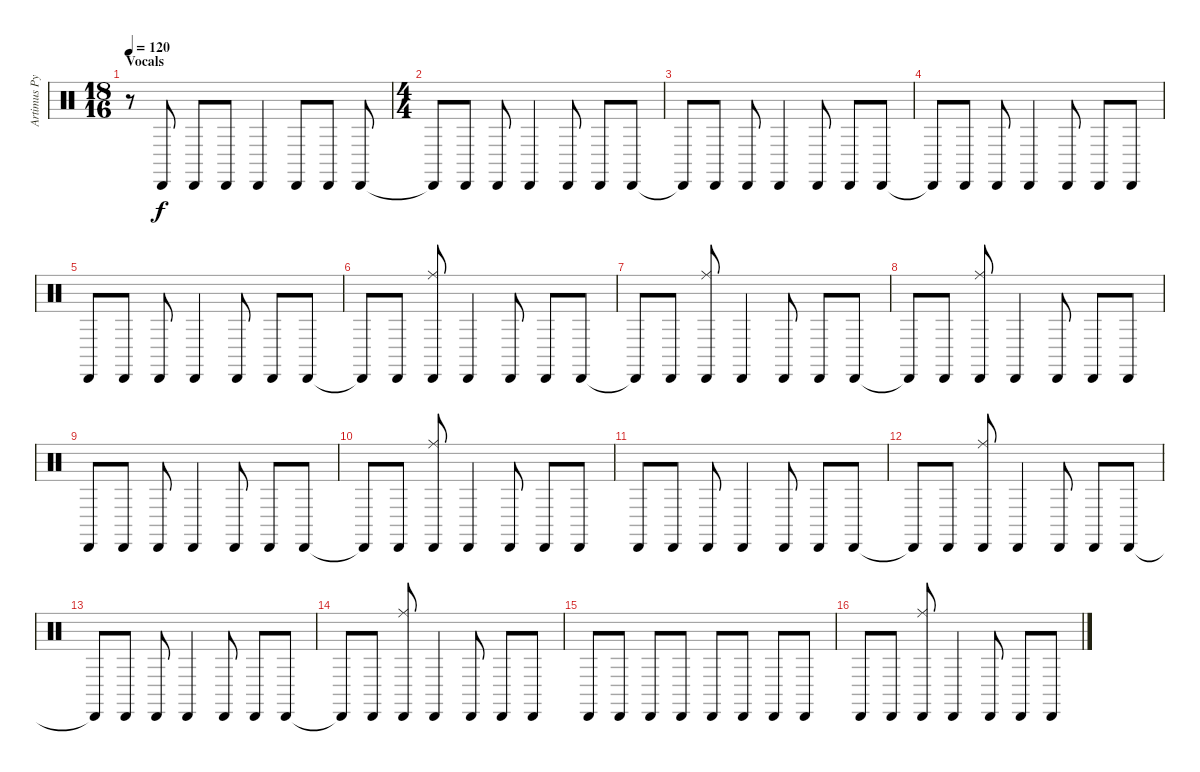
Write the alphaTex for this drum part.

\track ("Artimus Pyle" "Artimus Py") {instrument percussion}
\staff {score}
\articulation defaults
\ts (18 16)
\section ("" "Vocals")
\tempo 120
\clef neutral
\ks c
r.8{dy f} "Cabasa (hit)".8 "Cabasa (hit)".8 "Cabasa (hit)".8 "Cabasa (hit)".4 "Cabasa (hit)".8 "Cabasa (hit)".8 "Cabasa (hit)".8 |
\ts (4 4)
"Cabasa (hit)"{t}.8 "Cabasa (hit)".8 "Cabasa (hit)".8 "Cabasa (hit)".4 "Cabasa (hit)".8 "Cabasa (hit)".8 "Cabasa (hit)".8 |
"Cabasa (hit)"{t}.8 "Cabasa (hit)".8 "Cabasa (hit)".8 "Cabasa (hit)".4 "Cabasa (hit)".8 "Cabasa (hit)".8 "Cabasa (hit)".8 |
"Cabasa (hit)"{t}.8 "Cabasa (hit)".8 "Cabasa (hit)".8 "Cabasa (hit)".4 "Cabasa (hit)".8 "Cabasa (hit)".8 "Cabasa (hit)".8 |
"Cabasa (hit)".8 "Cabasa (hit)".8 "Cabasa (hit)".8 "Cabasa (hit)".4 "Cabasa (hit)".8 "Cabasa (hit)".8 "Cabasa (hit)".8 |
"Cabasa (hit)"{t}.8 "Cabasa (hit)".8 ("Cabasa (hit)" "Ride (middle)").8 "Cabasa (hit)".4 "Cabasa (hit)".8 "Cabasa (hit)".8 "Cabasa (hit)".8 |
"Cabasa (hit)"{t}.8 "Cabasa (hit)".8 ("Cabasa (hit)" "Ride (middle)").8 "Cabasa (hit)".4 "Cabasa (hit)".8 "Cabasa (hit)".8 "Cabasa (hit)".8 |
"Cabasa (hit)"{t}.8 "Cabasa (hit)".8 ("Cabasa (hit)" "Ride (middle)").8 "Cabasa (hit)".4 "Cabasa (hit)".8 "Cabasa (hit)".8 "Cabasa (hit)".8 |
"Cabasa (hit)".8 "Cabasa (hit)".8 "Cabasa (hit)".8 "Cabasa (hit)".4 "Cabasa (hit)".8 "Cabasa (hit)".8 "Cabasa (hit)".8 |
"Cabasa (hit)"{t}.8 "Cabasa (hit)".8 ("Cabasa (hit)" "Ride (middle)").8 "Cabasa (hit)".4 "Cabasa (hit)".8 "Cabasa (hit)".8 "Cabasa (hit)".8 |
"Cabasa (hit)".8 "Cabasa (hit)".8 "Cabasa (hit)".8 "Cabasa (hit)".4 "Cabasa (hit)".8 "Cabasa (hit)".8 "Cabasa (hit)".8 |
"Cabasa (hit)"{t}.8 "Cabasa (hit)".8 ("Cabasa (hit)" "Ride (middle)").8 "Cabasa (hit)".4 "Cabasa (hit)".8 "Cabasa (hit)".8 "Cabasa (hit)".8 |
"Cabasa (hit)"{t}.8 "Cabasa (hit)".8 "Cabasa (hit)".8 "Cabasa (hit)".4 "Cabasa (hit)".8 "Cabasa (hit)".8 "Cabasa (hit)".8 |
"Cabasa (hit)"{t}.8 "Cabasa (hit)".8 ("Cabasa (hit)" "Ride (middle)").8 "Cabasa (hit)".4 "Cabasa (hit)".8 "Cabasa (hit)".8 "Cabasa (hit)".8 |
"Cabasa (hit)".8 "Cabasa (hit)".8 "Cabasa (hit)".8 "Cabasa (hit)".8 "Cabasa (hit)".8 "Cabasa (hit)".8 "Cabasa (hit)".8 "Cabasa (hit)".8 |
"Cabasa (hit)".8 "Cabasa (hit)".8 ("Cabasa (hit)" "Ride (middle)").8 "Cabasa (hit)".4 "Cabasa (hit)".8 "Cabasa (hit)".8 "Cabasa (hit)".8
